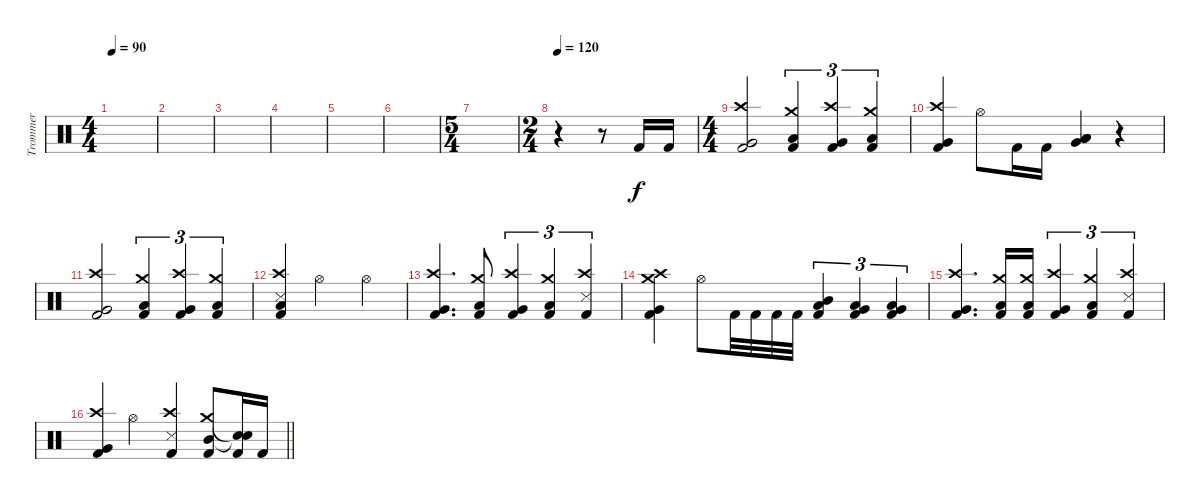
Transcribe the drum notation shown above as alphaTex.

\track ("Trommer" "Trommer") {instrument percussion}
\staff {score}
\articulation defaults
\ts (4 4)
\tempo 90
\clef neutral
\ks c
|
|
|
|
|
|
\ts (5 4)
|
\ts (2 4)
\tempo 120
r.4 r.8 "Kick (hit) 2".16 "Kick (hit) 2".16 |
\ts (4 4)
("Crash high (hit)" "Very Low Tom (hit)" "Kick (hit) 2").2 ("Crash medium (hit)" "Low Floor Tom (hit)" "Kick (hit) 2").4{tu (3 2)} ("Crash high (hit)" "Very Low Tom (hit)" "Kick (hit) 2").4{tu (3 2)} ("Crash medium (hit)" "Low Floor Tom (hit)" "Kick (hit) 2").4{tu (3 2)} |
("Crash high (hit)" "Very Low Tom (hit)" "Kick (hit) 2").4 "Hi-Hat (open)".8 "Kick (hit) 2".16 "Kick (hit) 2".16 ("Low Tom (hit)" "Low Floor Tom (hit)" "Very Low Tom (hit)").4 r.4 |
("Crash high (hit)" "Very Low Tom (hit)" "Kick (hit) 2").2 ("Crash medium (hit)" "Low Floor Tom (hit)" "Kick (hit) 2").4{tu (3 2)} ("Crash high (hit)" "Very Low Tom (hit)" "Kick (hit) 2").4{tu (3 2)} ("Crash medium (hit)" "Low Floor Tom (hit)" "Kick (hit) 2").4{tu (3 2)} |
("Crash high (hit)" "Snare (side stick) 3" "Low Floor Tom (hit)" "Kick (hit) 2").4 "Hi-Hat (open)".2 "Hi-Hat (open)".4 |
("Crash high (hit)" "Very Low Tom (hit)" "Kick (hit) 2").4{d} ("Crash medium (hit)" "Low Floor Tom (hit)" "Kick (hit) 2").8 ("Crash high (hit)" "Very Low Tom (hit)" "Kick (hit) 2").4{tu (3 2)} ("Crash medium (hit)" "Low Floor Tom (hit)" "Kick (hit) 2").4{tu (3 2)} ("Crash high (hit)" "Snare (side stick) 3" "Kick (hit) 2").4{tu (3 2)} |
("Crash medium (hit)" "Crash high (hit)" "Very Low Tom (hit)" "Kick (hit) 2").4 "Hi-Hat (open)".8 "Kick (hit) 2".32 "Kick (hit) 2".32 "Kick (hit) 2".32 "Kick (hit) 2".32 ("Mid Tom (hit)" "Low Tom (hit)" "Kick (hit) 2").4{tu (3 2)} ("Very Low Tom (hit)" "Low Tom (hit)" "Kick (hit) 2").4{tu (3 2)} ("Very Low Tom (hit)" "Low Floor Tom (hit)" "Kick (hit) 2").4{tu (3 2)} |
("Crash high (hit)" "Very Low Tom (hit)" "Kick (hit) 2").4{d} ("Crash medium (hit)" "Low Floor Tom (hit)" "Kick (hit) 2").16 ("Crash medium (hit)" "Low Floor Tom (hit)" "Kick (hit) 2").16 ("Crash high (hit)" "Very Low Tom (hit)" "Kick (hit) 2").4{tu (3 2)} ("Crash medium (hit)" "Low Floor Tom (hit)" "Kick (hit) 2").4{tu (3 2)} ("Crash high (hit)" "Snare (side stick) 3" "Kick (hit) 2").4{tu (3 2)} |
\barLineRight lightlight
("Crash high (hit)" "Very Low Tom (hit)" "Kick (hit) 2").4 "Hi-Hat (open)".4 ("Crash high (hit)" "Snare (side stick) 3" "Kick (hit) 2").4 ("Crash medium (hit)" "Mid Tom (hit)" "Kick (hit) 2").8 ("Snare (hit)"{t} "Snare (hit)"{t} "Kick (hit) 2").16 "Kick (hit) 2".16
